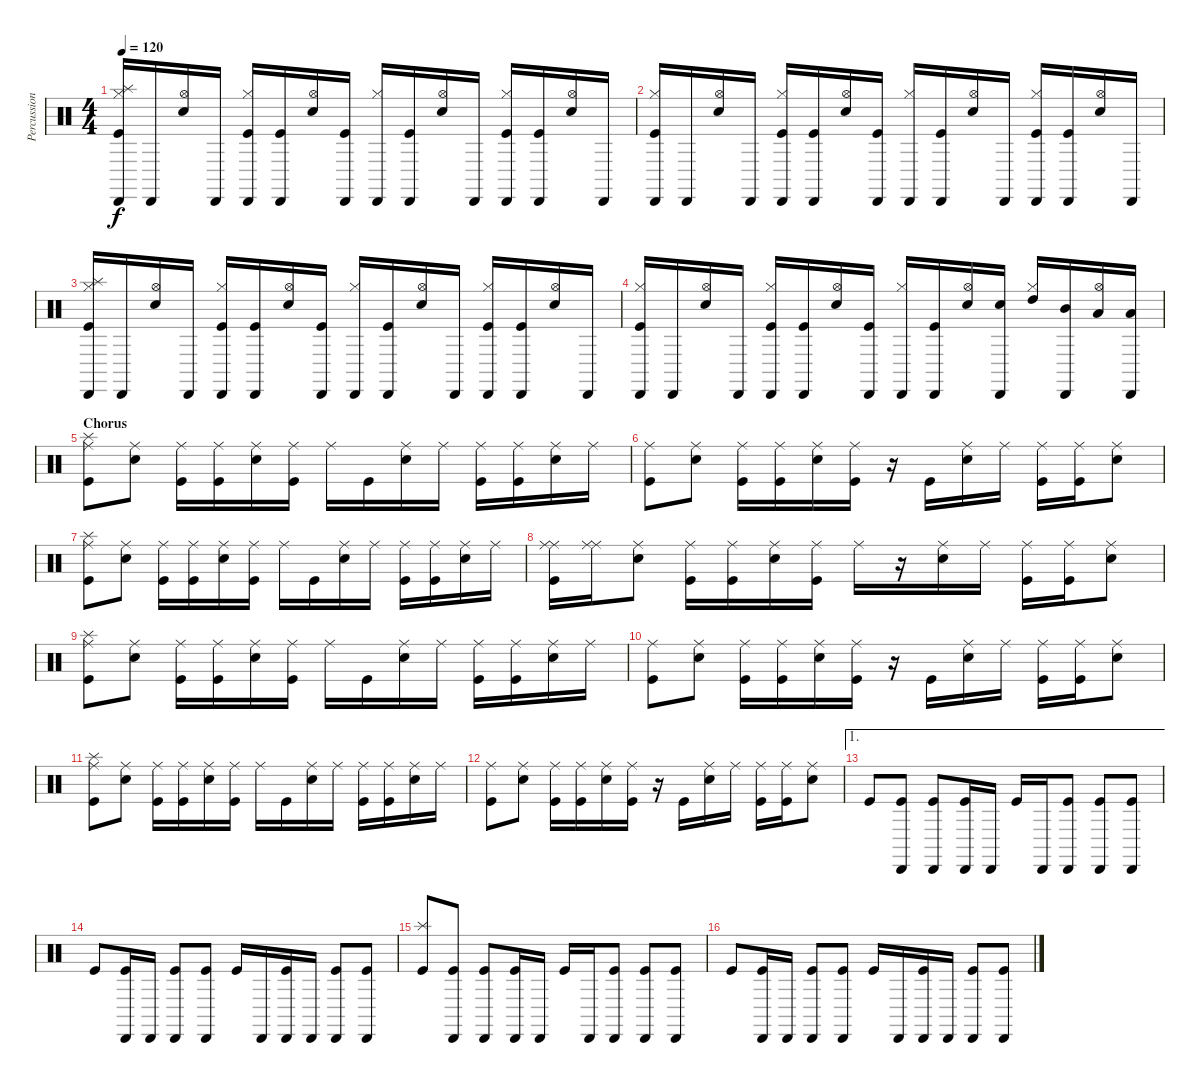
\track ("Percussion" "Percussion") {instrument percussion}
\staff {score}
\articulation defaults
\ts (4 4)
\tempo 120
\clef neutral
\ks c
("Kick (hit)" "Cabasa (hit)" "Splash (hit)" "Hi-Hat (closed)").16{dy f} "Cabasa (hit)".16 ("Hi-Hat (open)" "Snare (hit) 2").16 "Cabasa (hit)".16 ("Kick (hit)" "Cabasa (hit)" "Hi-Hat (closed)").16 ("Kick (hit)" "Cabasa (hit)").16 ("Hi-Hat (open)" "Snare (hit) 2").16 ("Kick (hit)" "Cabasa (hit)").16 ("Cabasa (hit)" "Hi-Hat (closed)").16 ("Kick (hit)" "Cabasa (hit)").16 ("Hi-Hat (open)" "Snare (hit) 2").16 "Cabasa (hit)".16 ("Kick (hit)" "Cabasa (hit)" "Hi-Hat (closed)").16 ("Kick (hit)" "Cabasa (hit)").16 ("Hi-Hat (open)" "Snare (hit) 2").16 "Cabasa (hit)".16 |
("Kick (hit)" "Cabasa (hit)" "Hi-Hat (closed)").16 "Cabasa (hit)".16 ("Hi-Hat (open)" "Snare (hit) 2").16 "Cabasa (hit)".16 ("Kick (hit)" "Cabasa (hit)" "Hi-Hat (closed)").16 ("Kick (hit)" "Cabasa (hit)").16 ("Hi-Hat (open)" "Snare (hit) 2").16 ("Kick (hit)" "Cabasa (hit)").16 ("Cabasa (hit)" "Hi-Hat (closed)").16 ("Kick (hit)" "Cabasa (hit)").16 ("Hi-Hat (open)" "Snare (hit) 2").16 "Cabasa (hit)".16 ("Kick (hit)" "Cabasa (hit)" "Hi-Hat (closed)").16 ("Kick (hit)" "Cabasa (hit)").16 ("Hi-Hat (open)" "Snare (hit) 2").16 "Cabasa (hit)".16 |
("Kick (hit)" "Cabasa (hit)" "Splash (hit)" "Hi-Hat (closed)").16 "Cabasa (hit)".16 ("Hi-Hat (open)" "Snare (hit) 2").16 "Cabasa (hit)".16 ("Kick (hit)" "Cabasa (hit)" "Hi-Hat (closed)").16 ("Kick (hit)" "Cabasa (hit)").16 ("Hi-Hat (open)" "Snare (hit) 2").16 ("Kick (hit)" "Cabasa (hit)").16 ("Cabasa (hit)" "Hi-Hat (closed)").16 ("Kick (hit)" "Cabasa (hit)").16 ("Hi-Hat (open)" "Snare (hit) 2").16 "Cabasa (hit)".16 ("Kick (hit)" "Cabasa (hit)" "Hi-Hat (closed)").16 ("Kick (hit)" "Cabasa (hit)").16 ("Hi-Hat (open)" "Snare (hit) 2").16 "Cabasa (hit)".16 |
("Kick (hit)" "Cabasa (hit)" "Hi-Hat (closed)").16 "Cabasa (hit)".16 ("Hi-Hat (open)" "Snare (hit) 2").16 "Cabasa (hit)".16 ("Kick (hit)" "Cabasa (hit)" "Hi-Hat (closed)").16 ("Kick (hit)" "Cabasa (hit)").16 ("Hi-Hat (open)" "Snare (hit) 2").16 ("Kick (hit)" "Cabasa (hit)").16 ("Cabasa (hit)" "Hi-Hat (closed)").16 ("Kick (hit)" "Cabasa (hit)").16 ("Hi-Hat (open)" "Snare (hit) 2").16 ("Cabasa (hit)" "Snare (hit) 2").16 ("High Tom (hit)" "Hi-Hat (closed)").16 ("Cabasa (hit)" "Mid Tom (hit)").16 ("Hi-Hat (open)" "Low Tom (hit)").16 ("Low Tom (hit)" "Cabasa (hit)").16 |
\section ("" "Chorus")
("Kick (hit)" "Splash (hit)" "Ride (middle)").8 ("Snare (hit) 2" "Ride (middle)").8 ("Kick (hit)" "Ride (middle)").16 ("Kick (hit)" "Ride (middle)").16 ("Snare (hit) 2" "Ride (middle)").16 ("Kick (hit)" "Ride (middle)").16 "Ride (middle)".16 "Kick (hit)".16 ("Snare (hit) 2" "Ride (middle)").16 "Ride (middle)".16 ("Kick (hit)" "Ride (middle)").16 ("Kick (hit)" "Ride (middle)").16 ("Snare (hit) 2" "Ride (middle)").16 "Ride (middle)".16 |
("Kick (hit)" "Ride (middle)").8 ("Snare (hit) 2" "Ride (middle)").8 ("Kick (hit)" "Ride (middle)").16 ("Kick (hit)" "Ride (middle)").16 ("Snare (hit) 2" "Ride (middle)").16 ("Kick (hit)" "Ride (middle)").16 r.16 "Kick (hit)".16 ("Snare (hit) 2" "Ride (middle)").16 "Ride (middle)".16 ("Kick (hit)" "Ride (middle)").16 ("Kick (hit)" "Ride (middle)").16 ("Snare (hit) 2" "Ride (middle)").8 |
("Kick (hit)" "Splash (hit)" "Ride (middle)").8 ("Snare (hit) 2" "Ride (middle)").8 ("Kick (hit)" "Ride (middle)").16 ("Kick (hit)" "Ride (middle)").16 ("Snare (hit) 2" "Ride (middle)").16 ("Kick (hit)" "Ride (middle)").16 "Ride (middle)".16 "Kick (hit)".16 ("Snare (hit) 2" "Ride (middle)").16 "Ride (middle)".16 ("Kick (hit)" "Ride (middle)").16 ("Kick (hit)" "Ride (middle)").16 ("Snare (hit) 2" "Ride (middle)").16 "Ride (middle)".16 |
("Ride (middle)" "Kick (hit)" "Ride (middle)").16 ("Ride (middle)" "Ride (middle)").16 ("Snare (hit) 2" "Ride (middle)").8 ("Kick (hit)" "Ride (middle)").16 ("Kick (hit)" "Ride (middle)").16 ("Snare (hit) 2" "Ride (middle)").16 ("Kick (hit)" "Ride (middle)").16 "Ride (middle)".16 r.16 ("Snare (hit) 2" "Ride (middle)").16 "Ride (middle)".16 ("Kick (hit)" "Ride (middle)").16 ("Kick (hit)" "Ride (middle)").16 ("Snare (hit) 2" "Ride (middle)").8 |
("Kick (hit)" "Splash (hit)" "Ride (middle)").8 ("Snare (hit) 2" "Ride (middle)").8 ("Kick (hit)" "Ride (middle)").16 ("Kick (hit)" "Ride (middle)").16 ("Snare (hit) 2" "Ride (middle)").16 ("Kick (hit)" "Ride (middle)").16 "Ride (middle)".16 "Kick (hit)".16 ("Snare (hit) 2" "Ride (middle)").16 "Ride (middle)".16 ("Kick (hit)" "Ride (middle)").16 ("Kick (hit)" "Ride (middle)").16 ("Snare (hit) 2" "Ride (middle)").16 "Ride (middle)".16 |
("Kick (hit)" "Ride (middle)").8 ("Snare (hit) 2" "Ride (middle)").8 ("Kick (hit)" "Ride (middle)").16 ("Kick (hit)" "Ride (middle)").16 ("Snare (hit) 2" "Ride (middle)").16 ("Kick (hit)" "Ride (middle)").16 r.16 "Kick (hit)".16 ("Snare (hit) 2" "Ride (middle)").16 "Ride (middle)".16 ("Kick (hit)" "Ride (middle)").16 ("Kick (hit)" "Ride (middle)").16 ("Snare (hit) 2" "Ride (middle)").8 |
("Kick (hit)" "Splash (hit)" "Ride (middle)").8 ("Snare (hit) 2" "Ride (middle)").8 ("Kick (hit)" "Ride (middle)").16 ("Kick (hit)" "Ride (middle)").16 ("Snare (hit) 2" "Ride (middle)").16 ("Kick (hit)" "Ride (middle)").16 "Ride (middle)".16 "Kick (hit)".16 ("Snare (hit) 2" "Ride (middle)").16 "Ride (middle)".16 ("Kick (hit)" "Ride (middle)").16 ("Kick (hit)" "Ride (middle)").16 ("Snare (hit) 2" "Ride (middle)").16 "Ride (middle)".16 |
("Kick (hit)" "Ride (middle)").8 ("Snare (hit) 2" "Ride (middle)").8 ("Kick (hit)" "Ride (middle)").16 ("Kick (hit)" "Ride (middle)").16 ("Snare (hit) 2" "Ride (middle)").16 ("Kick (hit)" "Ride (middle)").16 r.16 "Kick (hit)".16 ("Snare (hit) 2" "Ride (middle)").16 "Ride (middle)".16 ("Kick (hit)" "Ride (middle)").16 ("Kick (hit)" "Ride (middle)").16 ("Snare (hit) 2" "Ride (middle)").8 |
\ae 1 "Kick (hit)".8
("Kick (hit)" "Cabasa (hit)").8 ("Kick (hit)" "Cabasa (hit)").8 ("Kick (hit)" "Cabasa (hit)").16 "Cabasa (hit)".16 "Kick (hit)".16 "Cabasa (hit)".16 ("Kick (hit)" "Cabasa (hit)").8 ("Kick (hit)" "Cabasa (hit)").8 ("Kick (hit)" "Cabasa (hit)").8 |
"Kick (hit)".8 ("Kick (hit)" "Cabasa (hit)").16 "Cabasa (hit)".16 ("Kick (hit)" "Cabasa (hit)").8 ("Kick (hit)" "Cabasa (hit)").8 "Kick (hit)".16 "Cabasa (hit)".16 ("Kick (hit)" "Cabasa (hit)").16 "Cabasa (hit)".16 ("Kick (hit)" "Cabasa (hit)").8 ("Kick (hit)" "Cabasa (hit)").8 |
("Kick (hit)" "Splash (hit)").8 ("Kick (hit)" "Cabasa (hit)").8 ("Kick (hit)" "Cabasa (hit)").8 ("Kick (hit)" "Cabasa (hit)").16 "Cabasa (hit)".16 "Kick (hit)".16 "Cabasa (hit)".16 ("Kick (hit)" "Cabasa (hit)").8 ("Kick (hit)" "Cabasa (hit)").8 ("Kick (hit)" "Cabasa (hit)").8 |
"Kick (hit)".8 ("Kick (hit)" "Cabasa (hit)").16 "Cabasa (hit)".16 ("Kick (hit)" "Cabasa (hit)").8 ("Kick (hit)" "Cabasa (hit)").8 "Kick (hit)".16 "Cabasa (hit)".16 ("Kick (hit)" "Cabasa (hit)").16 "Cabasa (hit)".16 ("Kick (hit)" "Cabasa (hit)").8 ("Kick (hit)" "Cabasa (hit)").8
